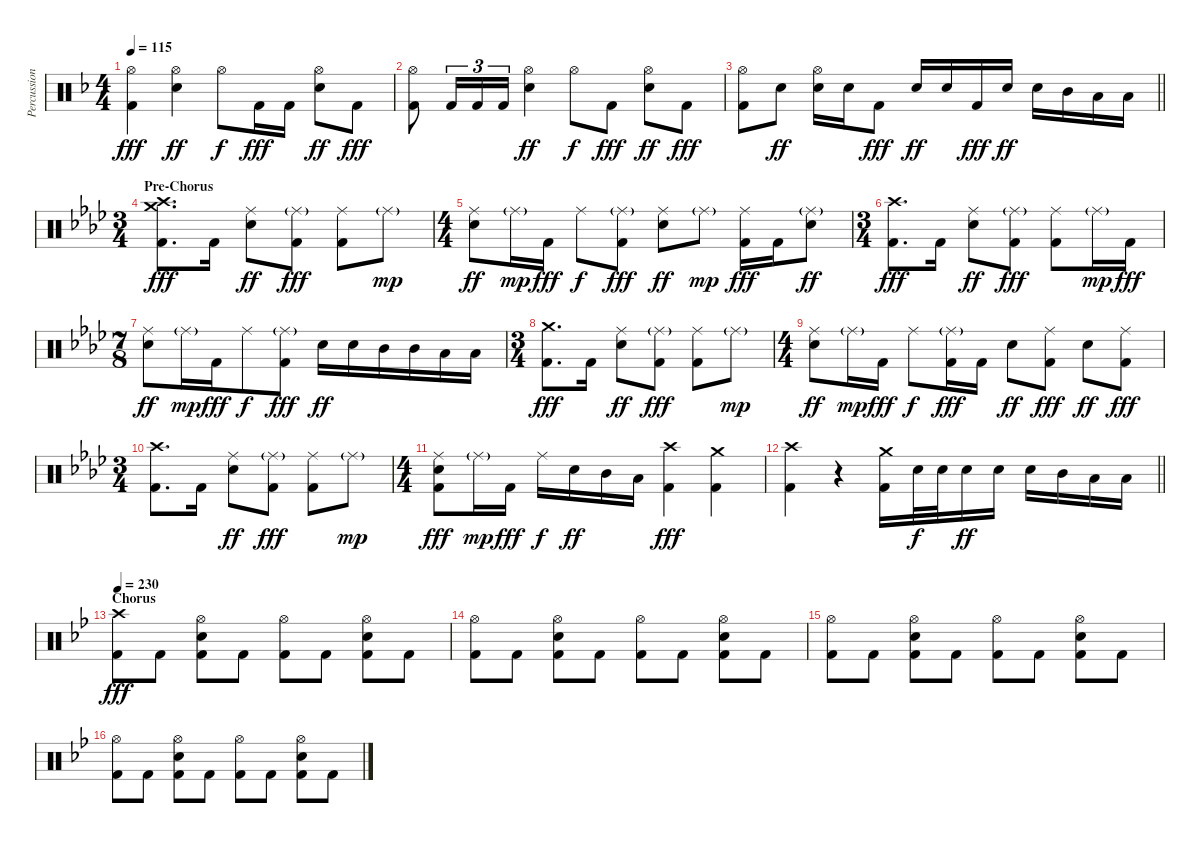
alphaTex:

\track ("Percussion" "Percussion") {instrument percussion}
\staff {score}
\articulation defaults
\ts (4 4)
\tempo 115
\clef neutral
\ks dminor
("Hi-Hat (open)" "Kick (hit) 2").4{dy fff} ("Hi-Hat (open)" "Electric Snare (hit)").4{dy ff} "Hi-Hat (open)".8{dy f} "Kick (hit) 2".16{dy fff} "Kick (hit) 2".16 ("Hi-Hat (open)" "Electric Snare (hit)").8{dy ff} "Kick (hit) 2".8{dy fff} |
("Hi-Hat (open)" "Kick (hit) 2").8 "Kick (hit) 2".16{tu (3 2)} "Kick (hit) 2".16{tu (3 2)} "Kick (hit) 2".16{tu (3 2)} ("Hi-Hat (open)" "Electric Snare (hit)").4{dy ff} "Hi-Hat (open)".8{dy f} "Kick (hit) 2".8{dy fff} ("Hi-Hat (open)" "Electric Snare (hit)").8{dy ff} "Kick (hit) 2".8{dy fff} |
\barLineRight lightlight
("Hi-Hat (open)" "Kick (hit) 2").8 "Electric Snare (hit)".8{dy ff} ("Hi-Hat (open)" "Electric Snare (hit)").16 "Electric Snare (hit)".16 "Kick (hit) 2".8{dy fff} "Electric Snare (hit)".16{dy ff} "Electric Snare (hit)".16 "Kick (hit) 2".16{dy fff} "Electric Snare (hit)".16{dy ff} "Electric Snare (hit)".16 "Mid Tom (hit)".16 "Low Tom (hit)".16 "Low Tom (hit)".16 |
\ts (3 4)
\section ("" "Pre-Chorus")
\ks fminor
("Crash high (hit)" "Crash medium (hit)" "Kick (hit) 2").8{d dy fff} "Kick (hit) 2".16 ("Ride (middle)" "Electric Snare (hit)").8{dy ff} ("Ride (middle)"{g} "Kick (hit) 2").8{dy fff} ("Ride (middle)" "Kick (hit) 2").8 "Ride (middle)"{g}.8{dy mp} |
\ts (4 4)
("Ride (middle)" "Electric Snare (hit)").8{dy ff} "Ride (middle)"{g}.16{dy mp} "Kick (hit) 2".16{dy fff} "Ride (middle)".8{dy f} ("Ride (middle)"{g} "Kick (hit) 2").8{dy fff} ("Ride (middle)" "Electric Snare (hit)").8{dy ff} "Ride (middle)"{g}.8{dy mp} ("Ride (middle)" "Kick (hit) 2").16{dy fff} "Kick (hit) 2".16 ("Ride (middle)"{g} "Electric Snare (hit)").8{dy ff} |
\ts (3 4)
("Crash high (hit)" "Kick (hit) 2").8{d dy fff} "Kick (hit) 2".16 ("Ride (middle)" "Electric Snare (hit)").8{dy ff} ("Ride (middle)"{g} "Kick (hit) 2").8{dy fff} ("Ride (middle)" "Kick (hit) 2").8 "Ride (middle)"{g}.16{dy mp} "Kick (hit) 2".16{dy fff} |
\ts (7 8)
("Ride (middle)" "Electric Snare (hit)").8{dy ff} "Ride (middle)"{g}.16{dy mp} "Kick (hit) 2".16{dy fff} "Ride (middle)".8{dy f} ("Ride (middle)"{g} "Kick (hit) 2").8{dy fff} "Electric Snare (hit)".16{dy ff} "Electric Snare (hit)".16 "Mid Tom (hit)".16 "Mid Tom (hit)".16 "Low Tom (hit)".16 "Low Tom (hit)".16 |
\ts (3 4)
("Crash medium (hit)" "Kick (hit) 2").8{d dy fff} "Kick (hit) 2".16 ("Ride (middle)" "Electric Snare (hit)").8{dy ff} ("Ride (middle)"{g} "Kick (hit) 2").8{dy fff} ("Ride (middle)" "Kick (hit) 2").8 "Ride (middle)"{g}.8{dy mp} |
\ts (4 4)
("Ride (middle)" "Electric Snare (hit)").8{dy ff} "Ride (middle)"{g}.16{dy mp} "Kick (hit) 2".16{dy fff} "Ride (middle)".8{dy f} ("Ride (middle)"{g} "Kick (hit) 2").16{dy fff} "Kick (hit) 2".16 "Electric Snare (hit)".8{dy ff} ("Ride (middle)" "Kick (hit) 2").8{dy fff} "Electric Snare (hit)".8{dy ff} ("Ride (middle)" "Kick (hit) 2").8{dy fff} |
\ts (3 4)
("Crash high (hit)" "Kick (hit) 2").8{d} "Kick (hit) 2".16 ("Ride (middle)" "Electric Snare (hit)").8{dy ff} ("Ride (middle)"{g} "Kick (hit) 2").8{dy fff} ("Ride (middle)" "Kick (hit) 2").8 "Ride (middle)"{g}.8{dy mp} |
\ts (4 4)
("Ride (middle)" "Electric Snare (hit)" "Kick (hit) 2").8{dy fff} "Ride (middle)"{g}.16{dy mp} "Kick (hit) 2".16{dy fff} "Ride (middle)".16{dy f} "Electric Snare (hit)".16{dy ff} "Mid Tom (hit)".16 "Low Tom (hit)".16 ("Crash high (hit)" "Kick (hit) 2").4{dy fff} ("Crash medium (hit)" "Kick (hit) 2").4 |
\barLineRight lightlight
("Crash high (hit)" "Kick (hit) 2").4 r.4 ("Crash medium (hit)" "Kick (hit) 2").16 "Electric Snare (hit)".32{dy f} "Electric Snare (hit)".32 "Electric Snare (hit)".16{dy ff} "Electric Snare (hit)".16 "Electric Snare (hit)".16 "Mid Tom (hit)".16 "Low Tom (hit)".16 "Low Tom (hit)".16 |
\section ("" "Chorus")
\tempo 230
\ks gminor
("Crash high (hit)" "Kick (hit) 2").8{dy fff} "Kick (hit) 2".8 ("Hi-Hat (open)" "Electric Snare (hit)" "Kick (hit) 2").8 "Kick (hit) 2".8 ("Hi-Hat (open)" "Kick (hit) 2").8 "Kick (hit) 2".8 ("Hi-Hat (open)" "Electric Snare (hit)" "Kick (hit) 2").8 "Kick (hit) 2".8 |
("Hi-Hat (open)" "Kick (hit) 2").8 "Kick (hit) 2".8 ("Hi-Hat (open)" "Electric Snare (hit)" "Kick (hit) 2").8 "Kick (hit) 2".8 ("Hi-Hat (open)" "Kick (hit) 2").8 "Kick (hit) 2".8 ("Hi-Hat (open)" "Electric Snare (hit)" "Kick (hit) 2").8 "Kick (hit) 2".8 |
("Hi-Hat (open)" "Kick (hit) 2").8 "Kick (hit) 2".8 ("Hi-Hat (open)" "Electric Snare (hit)" "Kick (hit) 2").8 "Kick (hit) 2".8 ("Hi-Hat (open)" "Kick (hit) 2").8 "Kick (hit) 2".8 ("Hi-Hat (open)" "Electric Snare (hit)" "Kick (hit) 2").8 "Kick (hit) 2".8 |
("Hi-Hat (open)" "Kick (hit) 2").8 "Kick (hit) 2".8 ("Hi-Hat (open)" "Electric Snare (hit)" "Kick (hit) 2").8 "Kick (hit) 2".8 ("Hi-Hat (open)" "Kick (hit) 2").8 "Kick (hit) 2".8 ("Hi-Hat (open)" "Electric Snare (hit)" "Kick (hit) 2").8 "Kick (hit) 2".8
